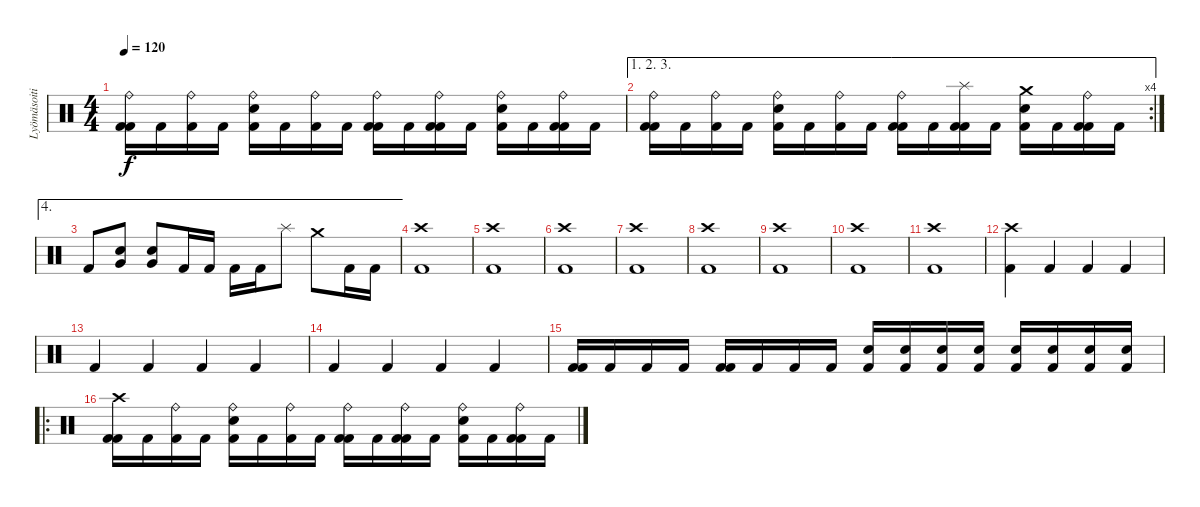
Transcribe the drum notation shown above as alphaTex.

\track ("Lyömäsoitin" "Lyömäsoiti") {instrument percussion}
\staff {score}
\articulation defaults
\ts (4 4)
\tempo 120
\clef neutral
\ks c
("Ride (bell)" "Kick (hit) 2" "Kick (hit) 2").16{dy f} "Kick (hit) 2".16 ("Ride (bell)" "Kick (hit) 2").16 "Kick (hit) 2".16 ("Ride (bell)" "Snare (hit) 2" "Kick (hit) 2").16 "Kick (hit) 2".16 ("Ride (bell)" "Kick (hit) 2").16 "Kick (hit) 2".16 ("Ride (bell)" "Kick (hit) 2" "Kick (hit) 2").16 "Kick (hit) 2".16 ("Ride (bell)" "Kick (hit) 2" "Kick (hit) 2").16 "Kick (hit) 2".16 ("Ride (bell)" "Snare (hit) 2" "Kick (hit) 2").16 "Kick (hit) 2".16 ("Ride (bell)" "Kick (hit) 2" "Kick (hit) 2").16 "Kick (hit) 2".16 |
\ae (1 2 3)
\rc 4
("Ride (bell)" "Kick (hit) 2" "Kick (hit) 2").16 "Kick (hit) 2".16 ("Ride (bell)" "Kick (hit) 2").16 "Kick (hit) 2".16 ("Ride (bell)" "Snare (hit) 2" "Kick (hit) 2").16 "Kick (hit) 2".16 ("Ride (bell)" "Kick (hit) 2").16 "Kick (hit) 2".16 ("Ride (bell)" "Kick (hit) 2" "Kick (hit) 2").16 "Kick (hit) 2".16 ("Splash (hit)" "Kick (hit) 2" "Kick (hit) 2").16 "Kick (hit) 2".16 ("Crash medium (hit)" "Snare (hit) 2" "Kick (hit) 2").16 "Kick (hit) 2".16 ("Ride (bell)" "Kick (hit) 2" "Kick (hit) 2").16 "Kick (hit) 2".16 |
\ae 4 "Kick (hit) 2".8
("Very Low Tom (hit)" "Snare (hit) 2").8 ("Very Low Tom (hit)" "Snare (hit) 2").8 "Kick (hit) 2".16 "Kick (hit) 2".16 "Kick (hit) 2".16 "Kick (hit) 2".16 "Splash (hit)".8 "Crash medium (hit)".8 "Kick (hit) 2".16 "Kick (hit) 2".16 |
("Crash high (hit)" "Kick (hit) 2").1 |
("Crash high (hit)" "Kick (hit) 2").1 |
("Crash high (hit)" "Kick (hit) 2").1 |
("Crash high (hit)" "Kick (hit) 2").1 |
("Crash high (hit)" "Kick (hit) 2").1 |
("Crash high (hit)" "Kick (hit) 2").1 |
("Crash high (hit)" "Kick (hit) 2").1 |
("Crash high (hit)" "Kick (hit) 2").1 |
("Crash high (hit)" "Kick (hit) 2").4 "Kick (hit) 2".4 "Kick (hit) 2".4 "Kick (hit) 2".4 |
"Kick (hit) 2".4 "Kick (hit) 2".4 "Kick (hit) 2".4 "Kick (hit) 2".4 |
"Kick (hit) 2".4 "Kick (hit) 2".4 "Kick (hit) 2".4 "Kick (hit) 2".4 |
("Kick (hit) 2" "Kick (hit) 2").16 "Kick (hit) 2".16 "Kick (hit) 2".16 "Kick (hit) 2".16 ("Kick (hit) 2" "Kick (hit) 2").16 "Kick (hit) 2".16 "Kick (hit) 2".16 "Kick (hit) 2".16 ("Snare (hit) 2" "Kick (hit) 2").16 ("Snare (hit) 2" "Kick (hit) 2").16 ("Snare (hit) 2" "Kick (hit) 2").16 ("Snare (hit) 2" "Kick (hit) 2").16 ("Snare (hit) 2" "Kick (hit) 2").16 ("Snare (hit) 2" "Kick (hit) 2").16 ("Snare (hit) 2" "Kick (hit) 2").16 ("Snare (hit) 2" "Kick (hit) 2").16 |
\ro
("Crash high (hit)" "Kick (hit) 2" "Kick (hit) 2").16 "Kick (hit) 2".16 ("Ride (bell)" "Kick (hit) 2").16 "Kick (hit) 2".16 ("Ride (bell)" "Snare (hit) 2" "Kick (hit) 2").16 "Kick (hit) 2".16 ("Ride (bell)" "Kick (hit) 2").16 "Kick (hit) 2".16 ("Ride (bell)" "Kick (hit) 2" "Kick (hit) 2").16 "Kick (hit) 2".16 ("Ride (bell)" "Kick (hit) 2" "Kick (hit) 2").16 "Kick (hit) 2".16 ("Ride (bell)" "Snare (hit) 2" "Kick (hit) 2").16 "Kick (hit) 2".16 ("Ride (bell)" "Kick (hit) 2" "Kick (hit) 2").16 "Kick (hit) 2".16
